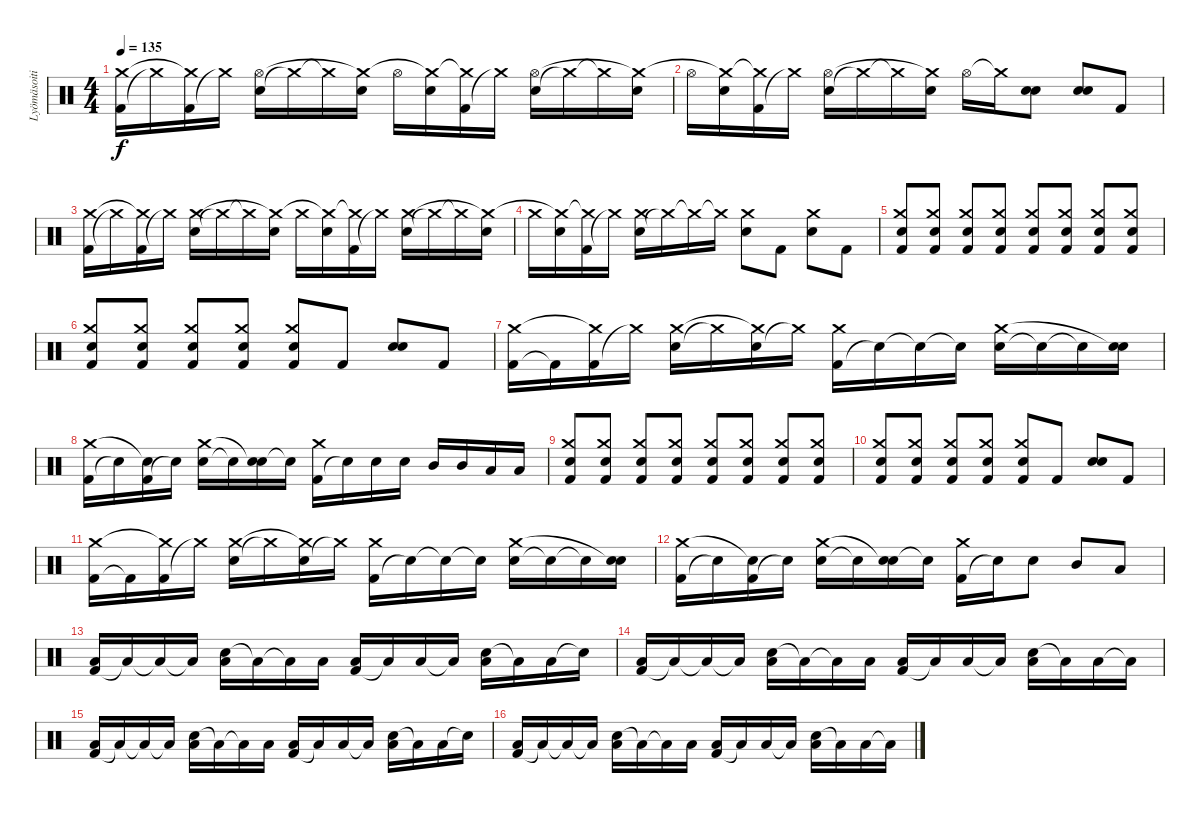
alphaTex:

\track ("Lyömäsoitin" "Lyömäsoiti") {instrument percussion}
\staff {score}
\articulation defaults
\ts (4 4)
\tempo 135
\clef neutral
\ks c
("Kick (hit) 2" "Crash medium (hit)").16{dy f} "Crash medium (hit)"{t}.16 ("Kick (hit) 2" "Crash medium (hit)"{t}).16 "Crash medium (hit)"{t}.16 ("Electric Snare (hit)" "Hi-Hat (open)").16 "Crash medium (hit)"{t}.16 "Crash medium (hit)"{t}.16 ("Electric Snare (hit)" "Crash medium (hit)"{t}).16 "Hi-Hat (open)".16 ("Electric Snare (hit)" "Crash medium (hit)"{t}).16 ("Kick (hit) 2" "Crash medium (hit)"{t}).16 "Crash medium (hit)"{t}.16 ("Electric Snare (hit)" "Hi-Hat (open)").16 "Crash medium (hit)"{t}.16 "Crash medium (hit)"{t}.16 ("Electric Snare (hit)" "Crash medium (hit)"{t}).16 |
"Hi-Hat (open)".16 ("Electric Snare (hit)" "Crash medium (hit)"{t}).16 ("Kick (hit) 2" "Crash medium (hit)"{t}).16 "Crash medium (hit)"{t}.16 ("Electric Snare (hit)" "Hi-Hat (open)").16 "Crash medium (hit)"{t}.16 "Crash medium (hit)"{t}.16 ("Electric Snare (hit)" "Crash medium (hit)"{t}).16 "Hi-Hat (open)".16 "Crash medium (hit)"{t}.16 ("Electric Snare (hit)" "Electric Snare (hit)").8 ("Electric Snare (hit)" "Electric Snare (hit)").8 "Kick (hit) 2".8 |
("Kick (hit) 2" "Crash medium (hit)").16 "Crash medium (hit)"{t}.16 ("Kick (hit) 2" "Crash medium (hit)"{t}).16 "Crash medium (hit)"{t}.16 ("Electric Snare (hit)" "Crash medium (hit)").16 "Crash medium (hit)"{t}.16 "Crash medium (hit)"{t}.16 ("Electric Snare (hit)" "Crash medium (hit)"{t}).16 "Crash medium (hit)".16 ("Electric Snare (hit)" "Crash medium (hit)"{t}).16 ("Kick (hit) 2" "Crash medium (hit)"{t}).16 "Crash medium (hit)"{t}.16 ("Electric Snare (hit)" "Crash medium (hit)").16 "Crash medium (hit)"{t}.16 "Crash medium (hit)"{t}.16 ("Electric Snare (hit)" "Crash medium (hit)"{t}).16 |
"Crash medium (hit)".16 ("Electric Snare (hit)" "Crash medium (hit)"{t}).16 ("Kick (hit) 2" "Crash medium (hit)"{t}).16 "Crash medium (hit)"{t}.16 ("Electric Snare (hit)" "Crash medium (hit)").16 "Crash medium (hit)"{t}.16 "Crash medium (hit)"{t}.16 "Crash medium (hit)"{t}.16 ("Electric Snare (hit)" "Crash medium (hit)").8 "Kick (hit) 2".8 ("Electric Snare (hit)" "Crash medium (hit)").8 "Kick (hit) 2".8 |
("Kick (hit) 2" "Electric Snare (hit)" "Crash medium (hit)").8{volume 8} ("Kick (hit) 2" "Electric Snare (hit)" "Crash medium (hit)").8{volume 13} ("Kick (hit) 2" "Electric Snare (hit)" "Crash medium (hit)").8 ("Kick (hit) 2" "Electric Snare (hit)" "Crash medium (hit)").8 ("Kick (hit) 2" "Electric Snare (hit)" "Crash medium (hit)").8 ("Kick (hit) 2" "Electric Snare (hit)" "Crash medium (hit)").8 ("Kick (hit) 2" "Electric Snare (hit)" "Crash medium (hit)").8 ("Kick (hit) 2" "Electric Snare (hit)" "Crash medium (hit)").8 |
("Kick (hit) 2" "Electric Snare (hit)" "Crash medium (hit)").8 ("Kick (hit) 2" "Electric Snare (hit)" "Crash medium (hit)").8 ("Kick (hit) 2" "Electric Snare (hit)" "Crash medium (hit)").8 ("Kick (hit) 2" "Electric Snare (hit)" "Crash medium (hit)").8 ("Kick (hit) 2" "Electric Snare (hit)" "Crash medium (hit)").8 "Kick (hit) 2".8 ("Electric Snare (hit)" "Electric Snare (hit)").8 "Kick (hit) 2".8 |
("Kick (hit) 2" "Crash medium (hit)").16 "Kick (hit) 2"{t}.16 ("Kick (hit) 2" "Crash medium (hit)"{t}).16 "Crash medium (hit)"{t}.16 ("Electric Snare (hit)" "Crash medium (hit)").16 "Crash medium (hit)"{t}.16 ("Electric Snare (hit)" "Crash medium (hit)"{t}).16 "Crash medium (hit)"{t}.16 ("Kick (hit) 2" "Crash medium (hit)").16 "Snare (hit)"{t}.16 "Snare (hit)"{t}.16 "Snare (hit)"{t}.16 ("Electric Snare (hit)" "Crash medium (hit)").16 "Snare (hit)"{t}.16 "Snare (hit)"{t}.16 ("Electric Snare (hit)" "Snare (hit)"{t}).16 |
("Kick (hit) 2" "Crash medium (hit)").16 "Snare (hit)"{t}.16 ("Kick (hit) 2" "Snare (hit)"{t}).16 "Snare (hit)"{t}.16 ("Electric Snare (hit)" "Crash medium (hit)").16 "Snare (hit)"{t}.16 ("Electric Snare (hit)" "Snare (hit)"{t}).16 "Snare (hit)"{t}.16 ("Kick (hit) 2" "Crash medium (hit)").16 "Snare (hit)"{t}.16 "Electric Snare (hit)".16 "Electric Snare (hit)".16 "Mid Tom (hit)".16 "Mid Tom (hit)".16 "Low Tom (hit)".16 "Low Tom (hit)".16 |
("Kick (hit) 2" "Electric Snare (hit)" "Crash medium (hit)").8{volume 8} ("Kick (hit) 2" "Electric Snare (hit)" "Crash medium (hit)").8{volume 13} ("Kick (hit) 2" "Electric Snare (hit)" "Crash medium (hit)").8 ("Kick (hit) 2" "Electric Snare (hit)" "Crash medium (hit)").8 ("Kick (hit) 2" "Electric Snare (hit)" "Crash medium (hit)").8 ("Kick (hit) 2" "Electric Snare (hit)" "Crash medium (hit)").8 ("Kick (hit) 2" "Electric Snare (hit)" "Crash medium (hit)").8 ("Kick (hit) 2" "Electric Snare (hit)" "Crash medium (hit)").8 |
("Kick (hit) 2" "Electric Snare (hit)" "Crash medium (hit)").8 ("Kick (hit) 2" "Electric Snare (hit)" "Crash medium (hit)").8 ("Kick (hit) 2" "Electric Snare (hit)" "Crash medium (hit)").8 ("Kick (hit) 2" "Electric Snare (hit)" "Crash medium (hit)").8 ("Kick (hit) 2" "Electric Snare (hit)" "Crash medium (hit)").8 "Kick (hit) 2".8 ("Electric Snare (hit)" "Electric Snare (hit)").8 "Kick (hit) 2".8 |
("Kick (hit) 2" "Crash medium (hit)").16 "Kick (hit) 2"{t}.16 ("Kick (hit) 2" "Crash medium (hit)"{t}).16 "Crash medium (hit)"{t}.16 ("Electric Snare (hit)" "Crash medium (hit)").16 "Crash medium (hit)"{t}.16 ("Electric Snare (hit)" "Crash medium (hit)"{t}).16 "Crash medium (hit)"{t}.16 ("Kick (hit) 2" "Crash medium (hit)").16 "Snare (hit)"{t}.16 "Snare (hit)"{t}.16 "Snare (hit)"{t}.16 ("Electric Snare (hit)" "Crash medium (hit)").16 "Snare (hit)"{t}.16 "Snare (hit)"{t}.16 ("Electric Snare (hit)" "Snare (hit)"{t}).16 |
("Kick (hit) 2" "Crash medium (hit)").16 "Snare (hit)"{t}.16 ("Kick (hit) 2" "Snare (hit)"{t}).16 "Snare (hit)"{t}.16 ("Electric Snare (hit)" "Crash medium (hit)").16 "Snare (hit)"{t}.16 ("Electric Snare (hit)" "Snare (hit)"{t}).16 "Snare (hit)"{t}.16 ("Kick (hit) 2" "Crash medium (hit)").16 "Snare (hit)"{t}.16 "Electric Snare (hit)".8 "Mid Tom (hit)".8 "Low Tom (hit)".8 |
("Kick (hit) 2" "Low Tom (hit)").16 "Low Tom (hit)"{t}.16 "Low Tom (hit)"{t}.16 "Low Tom (hit)"{t}.16 ("Electric Snare (hit)" "Low Tom (hit)").16 "Low Tom (hit)"{t}.16 "Low Tom (hit)"{t}.16 "Low Tom (hit)".16 ("Kick (hit) 2" "Low Tom (hit)").16 "Low Tom (hit)"{t}.16 "Low Tom (hit)".16 "Low Tom (hit)"{t}.16 ("Electric Snare (hit)" "Low Tom (hit)").16 "Low Tom (hit)"{t}.16 "Low Tom (hit)".16 "Snare (hit)"{t}.16 |
("Kick (hit) 2" "Low Tom (hit)").16 "Low Tom (hit)"{t}.16 "Low Tom (hit)"{t}.16 "Low Tom (hit)"{t}.16 ("Electric Snare (hit)" "Low Tom (hit)").16 "Low Tom (hit)"{t}.16 "Low Tom (hit)"{t}.16 "Low Tom (hit)".16 ("Kick (hit) 2" "Low Tom (hit)").16 "Low Tom (hit)"{t}.16 "Low Tom (hit)".16 "Low Tom (hit)"{t}.16 ("Electric Snare (hit)" "Low Tom (hit)").16 "Low Tom (hit)"{t}.16 "Low Tom (hit)".16 "Low Tom (hit)"{t}.16 |
("Kick (hit) 2" "Low Tom (hit)").16 "Low Tom (hit)"{t}.16 "Low Tom (hit)"{t}.16 "Low Tom (hit)"{t}.16 ("Electric Snare (hit)" "Low Tom (hit)").16 "Low Tom (hit)"{t}.16 "Low Tom (hit)"{t}.16 "Low Tom (hit)".16 ("Kick (hit) 2" "Low Tom (hit)").16 "Low Tom (hit)"{t}.16 "Low Tom (hit)".16 "Low Tom (hit)"{t}.16 ("Electric Snare (hit)" "Low Tom (hit)").16 "Low Tom (hit)"{t}.16 "Low Tom (hit)".16 "Snare (hit)"{t}.16 |
("Kick (hit) 2" "Low Tom (hit)").16 "Low Tom (hit)"{t}.16 "Low Tom (hit)"{t}.16 "Low Tom (hit)"{t}.16 ("Electric Snare (hit)" "Low Tom (hit)").16 "Low Tom (hit)"{t}.16 "Low Tom (hit)"{t}.16 "Low Tom (hit)".16 ("Kick (hit) 2" "Low Tom (hit)").16 "Low Tom (hit)"{t}.16 "Low Tom (hit)".16 "Low Tom (hit)"{t}.16 ("Electric Snare (hit)" "Low Tom (hit)").16 "Low Tom (hit)"{t}.16 "Low Tom (hit)".16 "Low Tom (hit)"{t}.16
